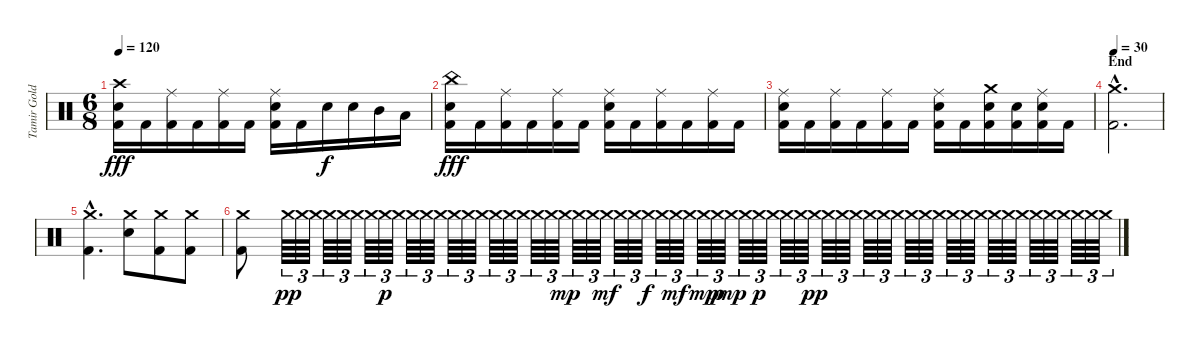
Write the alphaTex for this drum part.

\track ("Tamir Goldberg" "Tamir Gold") {instrument percussion}
\staff {score}
\articulation defaults
\ts (6 8)
\tempo 120
\clef neutral
\ks c
("Crash high (hit)" "Electric Snare (hit)" "Kick (hit) 2").16{dy fff} "Kick (hit) 2".16 ("Ride (middle)" "Kick (hit) 2").16 "Kick (hit) 2".16 ("Ride (middle)" "Kick (hit) 2").16 "Kick (hit) 2".16 ("Ride (middle)" "Electric Snare (hit)" "Kick (hit) 2").16 "Kick (hit) 2".16 "Electric Snare (hit)".16{dy f} "Electric Snare (hit)".16 "Mid Tom (hit)".16 "Low Tom (hit)".16 |
("China (hit)" "Electric Snare (hit)" "Kick (hit) 2").16{dy fff} "Kick (hit) 2".16 ("Ride (middle)" "Kick (hit) 2").16 "Kick (hit) 2".16 ("Ride (middle)" "Kick (hit) 2").16 "Kick (hit) 2".16 ("Ride (middle)" "Electric Snare (hit)" "Kick (hit) 2").16 "Kick (hit) 2".16 ("Ride (middle)" "Kick (hit) 2").16 "Kick (hit) 2".16 ("Ride (middle)" "Kick (hit) 2").16 "Kick (hit) 2".16 |
("Ride (middle)" "Electric Snare (hit)" "Kick (hit) 2").16 "Kick (hit) 2".16 ("Ride (middle)" "Kick (hit) 2").16 "Kick (hit) 2".16 ("Ride (middle)" "Kick (hit) 2").16 "Kick (hit) 2".16 ("Ride (middle)" "Electric Snare (hit)" "Kick (hit) 2").16 "Kick (hit) 2".16 ("Crash medium (hit)" "Electric Snare (hit)" "Kick (hit) 2").16 ("Electric Snare (hit)" "Kick (hit) 2").16 ("Ride (middle)" "Electric Snare (hit)" "Kick (hit) 2").16 "Kick (hit) 2".16 |
\section ("" "End")
\tempo 30
("Crash medium (hit)"{hac} "Kick (hit) 2"{hac}).2{d} |
("Crash medium (hit)"{hac} "Kick (hit) 2"{hac}).4{d} ("Crash medium (hit)" "Electric Snare (hit)").8 ("Crash medium (hit)" "Kick (hit) 2").8 ("Crash medium (hit)" "Kick (hit) 2").8 |
("Crash medium (hit)" "Kick (hit) 2").8 "Crash medium (hit)".64{tu (3 2) dy pp} "Crash medium (hit)".64{tu (3 2)} "Crash medium (hit)".64{tu (3 2)} "Crash medium (hit)".64{tu (3 2)} "Crash medium (hit)".64{tu (3 2)} "Crash medium (hit)".64{tu (3 2)} "Crash medium (hit)".64{tu (3 2)} "Crash medium (hit)".64{tu (3 2) dy p} "Crash medium (hit)".64{tu (3 2)} "Crash medium (hit)".64{tu (3 2)} "Crash medium (hit)".64{tu (3 2)} "Crash medium (hit)".64{tu (3 2)} "Crash medium (hit)".64{tu (3 2)} "Crash medium (hit)".64{tu (3 2)} "Crash medium (hit)".64{tu (3 2)} "Crash medium (hit)".64{tu (3 2)} "Crash medium (hit)".64{tu (3 2)} "Crash medium (hit)".64{tu (3 2)} "Crash medium (hit)".64{tu (3 2)} "Crash medium (hit)".64{tu (3 2)} "Crash medium (hit)".64{tu (3 2) dy mp} "Crash medium (hit)".64{tu (3 2)} "Crash medium (hit)".64{tu (3 2)} "Crash medium (hit)".64{tu (3 2) dy mf} "Crash medium (hit)".64{tu (3 2)} "Crash medium (hit)".64{tu (3 2)} "Crash medium (hit)".64{tu (3 2) dy f} "Crash medium (hit)".64{tu (3 2)} "Crash medium (hit)".64{tu (3 2) dy mf} "Crash medium (hit)".64{tu (3 2)} "Crash medium (hit)".64{tu (3 2) dy mp} "Crash medium (hit)".64{tu (3 2) dy p} "Crash medium (hit)".64{tu (3 2) dy mp} "Crash medium (hit)".64{tu (3 2)} "Crash medium (hit)".64{tu (3 2) dy p} "Crash medium (hit)".64{tu (3 2)} "Crash medium (hit)".64{tu (3 2)} "Crash medium (hit)".64{tu (3 2)} "Crash medium (hit)".64{tu (3 2) dy pp} "Crash medium (hit)".64{tu (3 2)} "Crash medium (hit)".64{tu (3 2)} "Crash medium (hit)".64{tu (3 2)} "Crash medium (hit)".64{tu (3 2)} "Crash medium (hit)".64{tu (3 2)} "Crash medium (hit)".64{tu (3 2)} "Crash medium (hit)".64{tu (3 2)} "Crash medium (hit)".64{tu (3 2)} "Crash medium (hit)".64{tu (3 2)} "Crash medium (hit)".64{tu (3 2)} "Crash medium (hit)".64{tu (3 2)} "Crash medium (hit)".64{tu (3 2)} "Crash medium (hit)".64{tu (3 2)} "Crash medium (hit)".64{tu (3 2)} "Crash medium (hit)".64{tu (3 2)} "Crash medium (hit)".64{tu (3 2)} "Crash medium (hit)".64{tu (3 2)} "Crash medium (hit)".64{tu (3 2)} "Crash medium (hit)".64{tu (3 2)} "Crash medium (hit)".64{tu (3 2)} "Crash medium (hit)".64{tu (3 2)}
